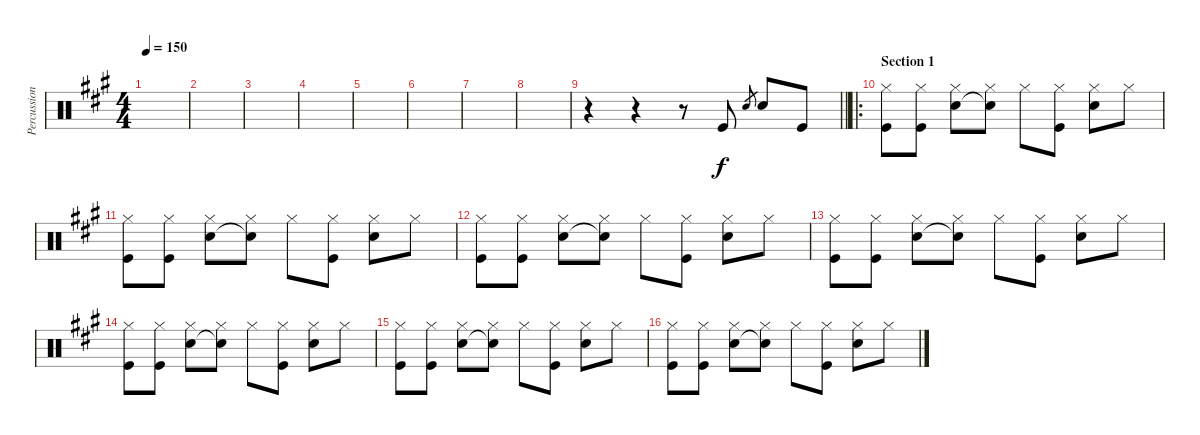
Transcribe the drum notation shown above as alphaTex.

\track ("Percussion" "Percussion") {instrument percussion}
\staff {score}
\articulation defaults
\ts (4 4)
\tempo 150
\clef neutral
\ks a
|
|
|
|
|
|
|
|
\barLineRight lightlight
r.4 r.4 r.8 "Kick (hit)".8 "Electric Snare (hit)".8{gr} "Electric Snare (hit)".8 "Kick (hit)".8 |
\ro
\section ("" "Section 1")
("Hi-Hat (closed)" "Kick (hit)").8 ("Hi-Hat (closed)" "Kick (hit)").8 ("Hi-Hat (closed)" "Electric Snare (hit)").8 ("Hi-Hat (closed)" "Snare (hit)"{t}).8 "Hi-Hat (closed)".8 ("Hi-Hat (closed)" "Kick (hit)").8 ("Hi-Hat (closed)" "Electric Snare (hit)").8 "Hi-Hat (closed)".8 |
("Hi-Hat (closed)" "Kick (hit)").8 ("Hi-Hat (closed)" "Kick (hit)").8 ("Hi-Hat (closed)" "Electric Snare (hit)").8 ("Hi-Hat (closed)" "Snare (hit)"{t}).8 "Hi-Hat (closed)".8 ("Hi-Hat (closed)" "Kick (hit)").8 ("Hi-Hat (closed)" "Electric Snare (hit)").8 "Hi-Hat (closed)".8 |
("Hi-Hat (closed)" "Kick (hit)").8 ("Hi-Hat (closed)" "Kick (hit)").8 ("Hi-Hat (closed)" "Electric Snare (hit)").8 ("Hi-Hat (closed)" "Snare (hit)"{t}).8 "Hi-Hat (closed)".8 ("Hi-Hat (closed)" "Kick (hit)").8 ("Hi-Hat (closed)" "Electric Snare (hit)").8 "Hi-Hat (closed)".8 |
("Hi-Hat (closed)" "Kick (hit)").8 ("Hi-Hat (closed)" "Kick (hit)").8 ("Hi-Hat (closed)" "Electric Snare (hit)").8 ("Hi-Hat (closed)" "Snare (hit)"{t}).8 "Hi-Hat (closed)".8 ("Hi-Hat (closed)" "Kick (hit)").8 ("Hi-Hat (closed)" "Electric Snare (hit)").8 "Hi-Hat (closed)".8 |
("Hi-Hat (closed)" "Kick (hit)").8 ("Hi-Hat (closed)" "Kick (hit)").8 ("Hi-Hat (closed)" "Electric Snare (hit)").8 ("Hi-Hat (closed)" "Snare (hit)"{t}).8 "Hi-Hat (closed)".8 ("Hi-Hat (closed)" "Kick (hit)").8 ("Hi-Hat (closed)" "Electric Snare (hit)").8 "Hi-Hat (closed)".8 |
("Hi-Hat (closed)" "Kick (hit)").8 ("Hi-Hat (closed)" "Kick (hit)").8 ("Hi-Hat (closed)" "Electric Snare (hit)").8 ("Hi-Hat (closed)" "Snare (hit)"{t}).8 "Hi-Hat (closed)".8 ("Hi-Hat (closed)" "Kick (hit)").8 ("Hi-Hat (closed)" "Electric Snare (hit)").8 "Hi-Hat (closed)".8 |
("Hi-Hat (closed)" "Kick (hit)").8 ("Hi-Hat (closed)" "Kick (hit)").8 ("Hi-Hat (closed)" "Electric Snare (hit)").8 ("Hi-Hat (closed)" "Snare (hit)"{t}).8 "Hi-Hat (closed)".8 ("Hi-Hat (closed)" "Kick (hit)").8 ("Hi-Hat (closed)" "Electric Snare (hit)").8 "Hi-Hat (closed)".8
